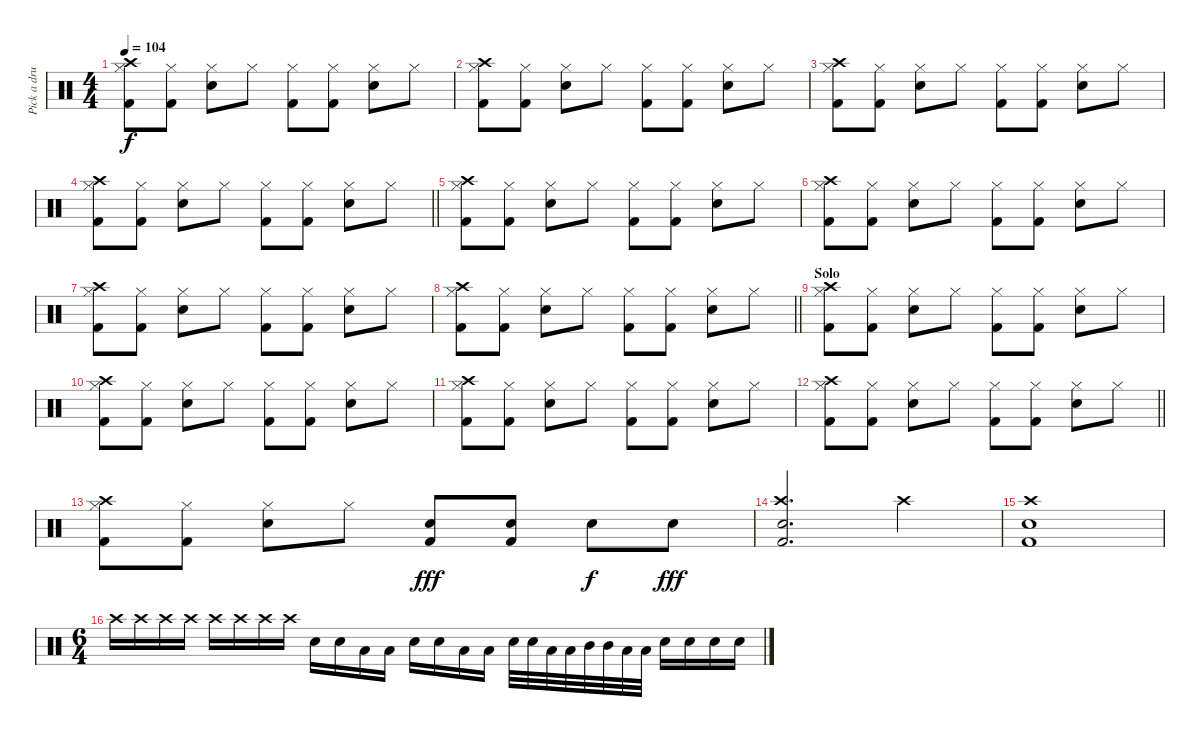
\track ("Pick a drummer any drummer" "Pick a dru") {instrument percussion}
\staff {score}
\articulation defaults
\ts (4 4)
\tempo 104
\clef neutral
\ks c
("Hi-Hat (closed)" "Kick (hit) 2" "Crash high (hit)").8{dy f} ("Hi-Hat (closed)" "Kick (hit) 2").8 ("Hi-Hat (closed)" "Snare (hit) 2").8 "Hi-Hat (closed)".8 ("Hi-Hat (closed)" "Kick (hit) 2").8 ("Hi-Hat (closed)" "Kick (hit) 2").8 ("Hi-Hat (closed)" "Snare (hit) 2").8 "Hi-Hat (closed)".8 |
("Hi-Hat (closed)" "Kick (hit) 2" "Crash high (hit)").8 ("Hi-Hat (closed)" "Kick (hit) 2").8 ("Hi-Hat (closed)" "Snare (hit) 2").8 "Hi-Hat (closed)".8 ("Hi-Hat (closed)" "Kick (hit) 2").8 ("Hi-Hat (closed)" "Kick (hit) 2").8 ("Hi-Hat (closed)" "Snare (hit) 2").8 "Hi-Hat (closed)".8 |
("Hi-Hat (closed)" "Kick (hit) 2" "Crash high (hit)").8 ("Hi-Hat (closed)" "Kick (hit) 2").8 ("Hi-Hat (closed)" "Snare (hit) 2").8 "Hi-Hat (closed)".8 ("Hi-Hat (closed)" "Kick (hit) 2").8 ("Hi-Hat (closed)" "Kick (hit) 2").8 ("Hi-Hat (closed)" "Snare (hit) 2").8 "Hi-Hat (closed)".8 |
\barLineRight lightlight
("Hi-Hat (closed)" "Kick (hit) 2" "Crash high (hit)").8 ("Hi-Hat (closed)" "Kick (hit) 2").8 ("Hi-Hat (closed)" "Snare (hit) 2").8 "Hi-Hat (closed)".8 ("Hi-Hat (closed)" "Kick (hit) 2").8 ("Hi-Hat (closed)" "Kick (hit) 2").8 ("Hi-Hat (closed)" "Snare (hit) 2").8 "Hi-Hat (closed)".8 |
("Hi-Hat (closed)" "Kick (hit) 2" "Crash high (hit)").8 ("Hi-Hat (closed)" "Kick (hit) 2").8 ("Hi-Hat (closed)" "Snare (hit) 2").8 "Hi-Hat (closed)".8 ("Hi-Hat (closed)" "Kick (hit) 2").8 ("Hi-Hat (closed)" "Kick (hit) 2").8 ("Hi-Hat (closed)" "Snare (hit) 2").8 "Hi-Hat (closed)".8 |
("Hi-Hat (closed)" "Kick (hit) 2" "Crash high (hit)").8 ("Hi-Hat (closed)" "Kick (hit) 2").8 ("Hi-Hat (closed)" "Snare (hit) 2").8 "Hi-Hat (closed)".8 ("Hi-Hat (closed)" "Kick (hit) 2").8 ("Hi-Hat (closed)" "Kick (hit) 2").8 ("Hi-Hat (closed)" "Snare (hit) 2").8 "Hi-Hat (closed)".8 |
("Hi-Hat (closed)" "Kick (hit) 2" "Crash high (hit)").8 ("Hi-Hat (closed)" "Kick (hit) 2").8 ("Hi-Hat (closed)" "Snare (hit) 2").8 "Hi-Hat (closed)".8 ("Hi-Hat (closed)" "Kick (hit) 2").8 ("Hi-Hat (closed)" "Kick (hit) 2").8 ("Hi-Hat (closed)" "Snare (hit) 2").8 "Hi-Hat (closed)".8 |
\barLineRight lightlight
("Hi-Hat (closed)" "Kick (hit) 2" "Crash high (hit)").8 ("Hi-Hat (closed)" "Kick (hit) 2").8 ("Hi-Hat (closed)" "Snare (hit) 2").8 "Hi-Hat (closed)".8 ("Hi-Hat (closed)" "Kick (hit) 2").8 ("Hi-Hat (closed)" "Kick (hit) 2").8 ("Hi-Hat (closed)" "Snare (hit) 2").8 "Hi-Hat (closed)".8 |
\section ("" "Solo")
("Hi-Hat (closed)" "Kick (hit) 2" "Crash high (hit)").8 ("Hi-Hat (closed)" "Kick (hit) 2").8 ("Hi-Hat (closed)" "Snare (hit) 2").8 "Hi-Hat (closed)".8 ("Hi-Hat (closed)" "Kick (hit) 2").8 ("Hi-Hat (closed)" "Kick (hit) 2").8 ("Hi-Hat (closed)" "Snare (hit) 2").8 "Hi-Hat (closed)".8 |
("Hi-Hat (closed)" "Kick (hit) 2" "Crash high (hit)").8 ("Hi-Hat (closed)" "Kick (hit) 2").8 ("Hi-Hat (closed)" "Snare (hit) 2").8 "Hi-Hat (closed)".8 ("Hi-Hat (closed)" "Kick (hit) 2").8 ("Hi-Hat (closed)" "Kick (hit) 2").8 ("Hi-Hat (closed)" "Snare (hit) 2").8 "Hi-Hat (closed)".8 |
("Hi-Hat (closed)" "Kick (hit) 2" "Crash high (hit)").8 ("Hi-Hat (closed)" "Kick (hit) 2").8 ("Hi-Hat (closed)" "Snare (hit) 2").8 "Hi-Hat (closed)".8 ("Hi-Hat (closed)" "Kick (hit) 2").8 ("Hi-Hat (closed)" "Kick (hit) 2").8 ("Hi-Hat (closed)" "Snare (hit) 2").8 "Hi-Hat (closed)".8 |
\barLineRight lightlight
("Hi-Hat (closed)" "Kick (hit) 2" "Crash high (hit)").8 ("Hi-Hat (closed)" "Kick (hit) 2").8 ("Hi-Hat (closed)" "Snare (hit) 2").8 "Hi-Hat (closed)".8 ("Hi-Hat (closed)" "Kick (hit) 2").8 ("Hi-Hat (closed)" "Kick (hit) 2").8 ("Hi-Hat (closed)" "Snare (hit) 2").8 "Hi-Hat (closed)".8 |
("Hi-Hat (closed)" "Kick (hit) 2" "Crash high (hit)").8 ("Hi-Hat (closed)" "Kick (hit) 2").8 ("Hi-Hat (closed)" "Snare (hit) 2").8 "Hi-Hat (closed)".8 ("Snare (hit) 2" "Kick (hit) 2").8{dy fff} ("Snare (hit) 2" "Kick (hit) 2").8 "Snare (hit) 2".8{dy f} "Snare (hit) 2".8{dy fff} |
("Snare (hit) 2" "Kick (hit) 2" "Crash high (hit)").2{d} "Crash high (hit)".4 |
("Snare (hit) 2" "Kick (hit) 2" "Crash high (hit)").1 |
\ts (6 4)
"Crash high (hit)".16 "Crash high (hit)".16 "Crash high (hit)".16 "Crash high (hit)".16 "Crash high (hit)".16 "Crash high (hit)".16 "Crash high (hit)".16 "Crash high (hit)".16 "Snare (hit) 2".16 "Snare (hit) 2".16 "Low Tom (hit)".16 "Low Tom (hit)".16 "Snare (hit) 2".16 "Snare (hit) 2".16 "Low Tom (hit)".16 "Low Tom (hit)".16 "Snare (hit) 2".32 "Snare (hit) 2".32 "Low Tom (hit)".32 "Low Tom (hit)".32 "Mid Tom (hit)".32 "Mid Tom (hit)".32 "Low Floor Tom (hit)".32 "Low Floor Tom (hit)".32 "Snare (hit) 2".16 "Snare (hit) 2".16 "Snare (hit) 2".16 "Snare (hit) 2".16
